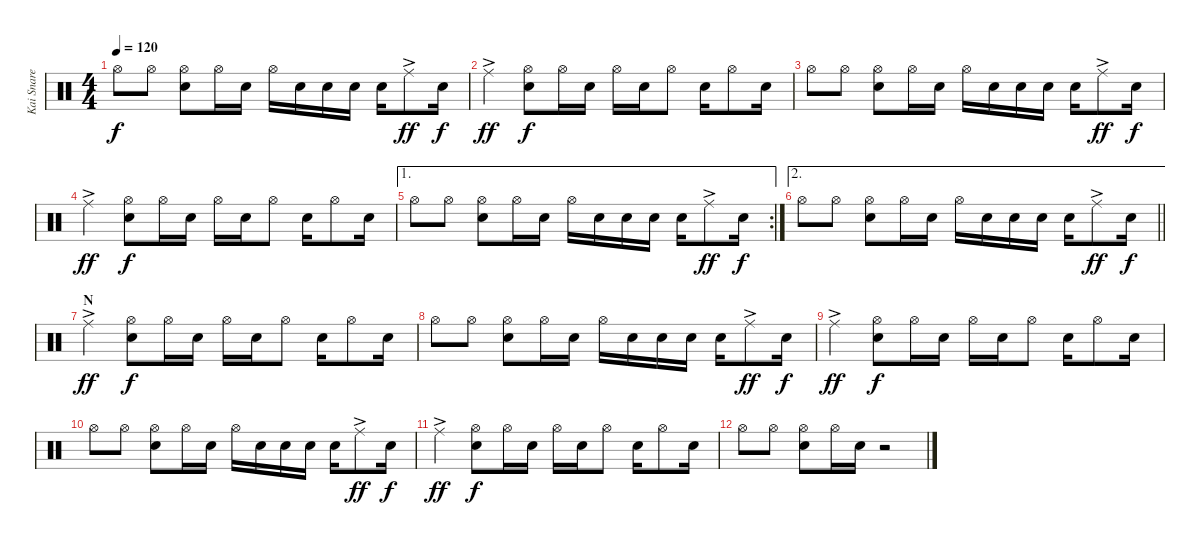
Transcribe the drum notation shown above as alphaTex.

\track ("Kai Snare" "Kai Snare") {instrument percussion}
\staff {score}
\articulation defaults
\ts (4 4)
\tempo 120
\clef neutral
\ks c "Hi-Hat (open)".8{dy f} "Hi-Hat (open)".8
("Hi-Hat (open)" "Snare (hit) 2").8 "Hi-Hat (open)".16 "Snare (hit) 2".16 "Hi-Hat (open)".16 "Snare (hit) 2".16 "Snare (hit) 2".16 "Snare (hit) 2".16 "Snare (hit) 2".16 "Ride (middle)"{ac}.8{dy ff} "Snare (hit) 2".16{dy f} |
"Ride (middle)"{ac}.4{dy ff} ("Hi-Hat (open)" "Snare (hit) 2").8{dy f} "Hi-Hat (open)".16 "Snare (hit) 2".16 "Hi-Hat (open)".16 "Snare (hit) 2".16 "Hi-Hat (open)".8 "Snare (hit) 2".16 "Hi-Hat (open)".8 "Snare (hit) 2".16 |
"Hi-Hat (open)".8 "Hi-Hat (open)".8 ("Hi-Hat (open)" "Snare (hit) 2").8 "Hi-Hat (open)".16 "Snare (hit) 2".16 "Hi-Hat (open)".16 "Snare (hit) 2".16 "Snare (hit) 2".16 "Snare (hit) 2".16 "Snare (hit) 2".16 "Ride (middle)"{ac}.8{dy ff} "Snare (hit) 2".16{dy f} |
"Ride (middle)"{ac}.4{dy ff} ("Hi-Hat (open)" "Snare (hit) 2").8{dy f} "Hi-Hat (open)".16 "Snare (hit) 2".16 "Hi-Hat (open)".16 "Snare (hit) 2".16 "Hi-Hat (open)".8 "Snare (hit) 2".16 "Hi-Hat (open)".8 "Snare (hit) 2".16 |
\ae 1
\rc 2 "Hi-Hat (open)".8 "Hi-Hat (open)".8
("Hi-Hat (open)" "Snare (hit) 2").8 "Hi-Hat (open)".16 "Snare (hit) 2".16 "Hi-Hat (open)".16 "Snare (hit) 2".16 "Snare (hit) 2".16 "Snare (hit) 2".16 "Snare (hit) 2".16 "Ride (middle)"{ac}.8{dy ff} "Snare (hit) 2".16{dy f} |
\ae 2
\barLineRight lightlight "Hi-Hat (open)".8 "Hi-Hat (open)".8
("Hi-Hat (open)" "Snare (hit) 2").8 "Hi-Hat (open)".16 "Snare (hit) 2".16 "Hi-Hat (open)".16 "Snare (hit) 2".16 "Snare (hit) 2".16 "Snare (hit) 2".16 "Snare (hit) 2".16 "Ride (middle)"{ac}.8{dy ff} "Snare (hit) 2".16{dy f} |
\section ("" "N")
"Ride (middle)"{ac}.4{dy ff} ("Hi-Hat (open)" "Snare (hit) 2").8{dy f} "Hi-Hat (open)".16 "Snare (hit) 2".16 "Hi-Hat (open)".16 "Snare (hit) 2".16 "Hi-Hat (open)".8 "Snare (hit) 2".16 "Hi-Hat (open)".8 "Snare (hit) 2".16 |
"Hi-Hat (open)".8 "Hi-Hat (open)".8 ("Hi-Hat (open)" "Snare (hit) 2").8 "Hi-Hat (open)".16 "Snare (hit) 2".16 "Hi-Hat (open)".16 "Snare (hit) 2".16 "Snare (hit) 2".16 "Snare (hit) 2".16 "Snare (hit) 2".16 "Ride (middle)"{ac}.8{dy ff} "Snare (hit) 2".16{dy f} |
"Ride (middle)"{ac}.4{dy ff} ("Hi-Hat (open)" "Snare (hit) 2").8{dy f} "Hi-Hat (open)".16 "Snare (hit) 2".16 "Hi-Hat (open)".16 "Snare (hit) 2".16 "Hi-Hat (open)".8 "Snare (hit) 2".16 "Hi-Hat (open)".8 "Snare (hit) 2".16 |
"Hi-Hat (open)".8 "Hi-Hat (open)".8 ("Hi-Hat (open)" "Snare (hit) 2").8 "Hi-Hat (open)".16 "Snare (hit) 2".16 "Hi-Hat (open)".16 "Snare (hit) 2".16 "Snare (hit) 2".16 "Snare (hit) 2".16 "Snare (hit) 2".16 "Ride (middle)"{ac}.8{dy ff} "Snare (hit) 2".16{dy f} |
"Ride (middle)"{ac}.4{dy ff} ("Hi-Hat (open)" "Snare (hit) 2").8{dy f} "Hi-Hat (open)".16 "Snare (hit) 2".16 "Hi-Hat (open)".16 "Snare (hit) 2".16 "Hi-Hat (open)".8 "Snare (hit) 2".16 "Hi-Hat (open)".8 "Snare (hit) 2".16 |
"Hi-Hat (open)".8 "Hi-Hat (open)".8 ("Hi-Hat (open)" "Snare (hit) 2").8 "Hi-Hat (open)".16 "Snare (hit) 2".16 r.2
